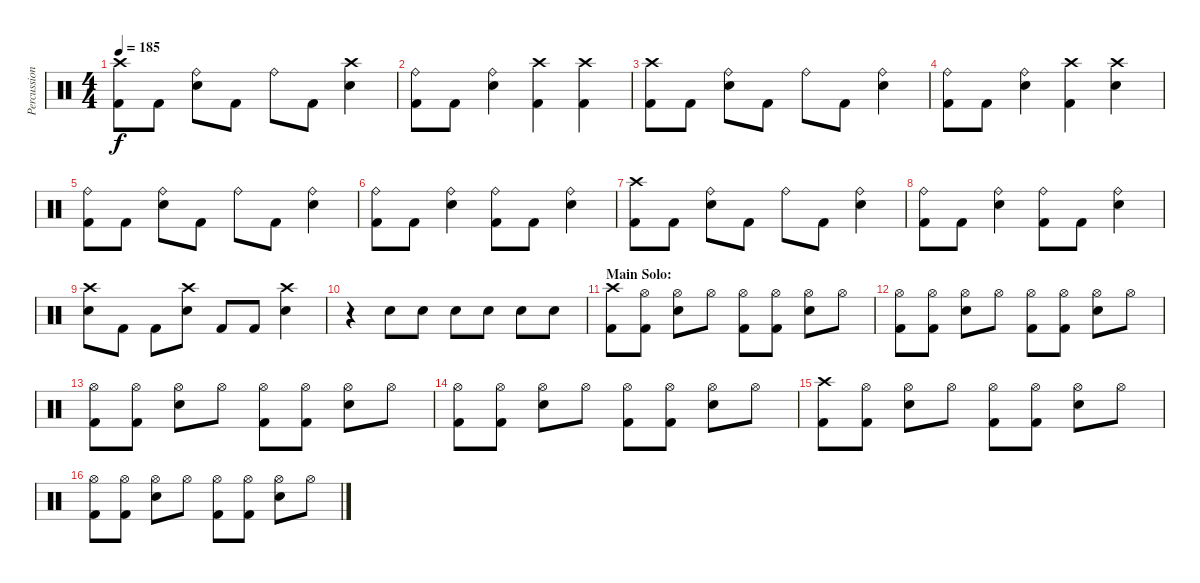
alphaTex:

\track ("Percussion" "Percussion") {instrument percussion}
\staff {score}
\articulation defaults
\ts (4 4)
\tempo 185
\clef neutral
\ks c
("Crash high (hit)" "Kick (hit) 2").8{dy f} "Kick (hit) 2".8 ("Ride (bell)" "Snare (hit) 2").8 "Kick (hit) 2".8 "Ride (bell)".8 "Kick (hit) 2".8 ("Crash high (hit)" "Snare (hit) 2").4 |
("Ride (bell)" "Kick (hit) 2").8 "Kick (hit) 2".8 ("Ride (bell)" "Snare (hit) 2").4 ("Crash high (hit)" "Kick (hit) 2").4 ("Crash high (hit)" "Kick (hit) 2").4 |
("Crash high (hit)" "Kick (hit) 2").8 "Kick (hit) 2".8 ("Ride (bell)" "Snare (hit) 2").8 "Kick (hit) 2".8 "Ride (bell)".8 "Kick (hit) 2".8 ("Ride (bell)" "Snare (hit) 2").4 |
("Ride (bell)" "Kick (hit) 2").8 "Kick (hit) 2".8 ("Ride (bell)" "Snare (hit) 2").4 ("Crash high (hit)" "Kick (hit) 2").4 ("Crash high (hit)" "Snare (hit) 2").4 |
("Ride (bell)" "Kick (hit) 2").8 "Kick (hit) 2".8 ("Ride (bell)" "Snare (hit) 2").8 "Kick (hit) 2".8 "Ride (bell)".8 "Kick (hit) 2".8 ("Ride (bell)" "Snare (hit) 2").4 |
("Ride (bell)" "Kick (hit) 2").8 "Kick (hit) 2".8 ("Ride (bell)" "Snare (hit) 2").4 ("Ride (bell)" "Kick (hit) 2").8 "Kick (hit) 2".8 ("Ride (bell)" "Snare (hit) 2").4 |
("Crash high (hit)" "Kick (hit) 2").8 "Kick (hit) 2".8 ("Ride (bell)" "Snare (hit) 2").8 "Kick (hit) 2".8 "Ride (bell)".8 "Kick (hit) 2".8 ("Ride (bell)" "Snare (hit) 2").4 |
("Ride (bell)" "Kick (hit) 2").8 "Kick (hit) 2".8 ("Ride (bell)" "Snare (hit) 2").4 ("Ride (bell)" "Kick (hit) 2").8 "Kick (hit) 2".8 ("Ride (bell)" "Snare (hit) 2").4 |
("Crash high (hit)" "Snare (hit) 2").8 "Kick (hit) 2".8 "Kick (hit) 2".8 ("Crash high (hit)" "Snare (hit) 2").8 "Kick (hit) 2".8 "Kick (hit) 2".8 ("Crash high (hit)" "Snare (hit) 2").4 |
r.4 "Snare (hit) 2".8 "Snare (hit) 2".8 "Snare (hit) 2".8 "Snare (hit) 2".8 "Snare (hit) 2".8 "Snare (hit) 2".8 |
\section ("" "Main Solo:")
("Crash high (hit)" "Kick (hit) 2").8 ("Hi-Hat (open)" "Kick (hit) 2").8 ("Hi-Hat (open)" "Snare (hit) 2").8 "Hi-Hat (open)".8 ("Hi-Hat (open)" "Kick (hit) 2").8 ("Hi-Hat (open)" "Kick (hit) 2").8 ("Hi-Hat (open)" "Snare (hit) 2").8 "Hi-Hat (open)".8 |
("Hi-Hat (open)" "Kick (hit) 2").8 ("Hi-Hat (open)" "Kick (hit) 2").8 ("Hi-Hat (open)" "Snare (hit) 2").8 "Hi-Hat (open)".8 ("Hi-Hat (open)" "Kick (hit) 2").8 ("Hi-Hat (open)" "Kick (hit) 2").8 ("Hi-Hat (open)" "Snare (hit) 2").8 "Hi-Hat (open)".8 |
("Hi-Hat (open)" "Kick (hit) 2").8 ("Hi-Hat (open)" "Kick (hit) 2").8 ("Hi-Hat (open)" "Snare (hit) 2").8 "Hi-Hat (open)".8 ("Hi-Hat (open)" "Kick (hit) 2").8 ("Hi-Hat (open)" "Kick (hit) 2").8 ("Hi-Hat (open)" "Snare (hit) 2").8 "Hi-Hat (open)".8 |
("Hi-Hat (open)" "Kick (hit) 2").8 ("Hi-Hat (open)" "Kick (hit) 2").8 ("Hi-Hat (open)" "Snare (hit) 2").8 "Hi-Hat (open)".8 ("Hi-Hat (open)" "Kick (hit) 2").8 ("Hi-Hat (open)" "Kick (hit) 2").8 ("Hi-Hat (open)" "Snare (hit) 2").8 "Hi-Hat (open)".8 |
("Crash high (hit)" "Kick (hit) 2").8 ("Hi-Hat (open)" "Kick (hit) 2").8 ("Hi-Hat (open)" "Snare (hit) 2").8 "Hi-Hat (open)".8 ("Hi-Hat (open)" "Kick (hit) 2").8 ("Hi-Hat (open)" "Kick (hit) 2").8 ("Hi-Hat (open)" "Snare (hit) 2").8 "Hi-Hat (open)".8 |
("Hi-Hat (open)" "Kick (hit) 2").8 ("Hi-Hat (open)" "Kick (hit) 2").8 ("Hi-Hat (open)" "Snare (hit) 2").8 "Hi-Hat (open)".8 ("Hi-Hat (open)" "Kick (hit) 2").8 ("Hi-Hat (open)" "Kick (hit) 2").8 ("Hi-Hat (open)" "Snare (hit) 2").8 "Hi-Hat (open)".8
